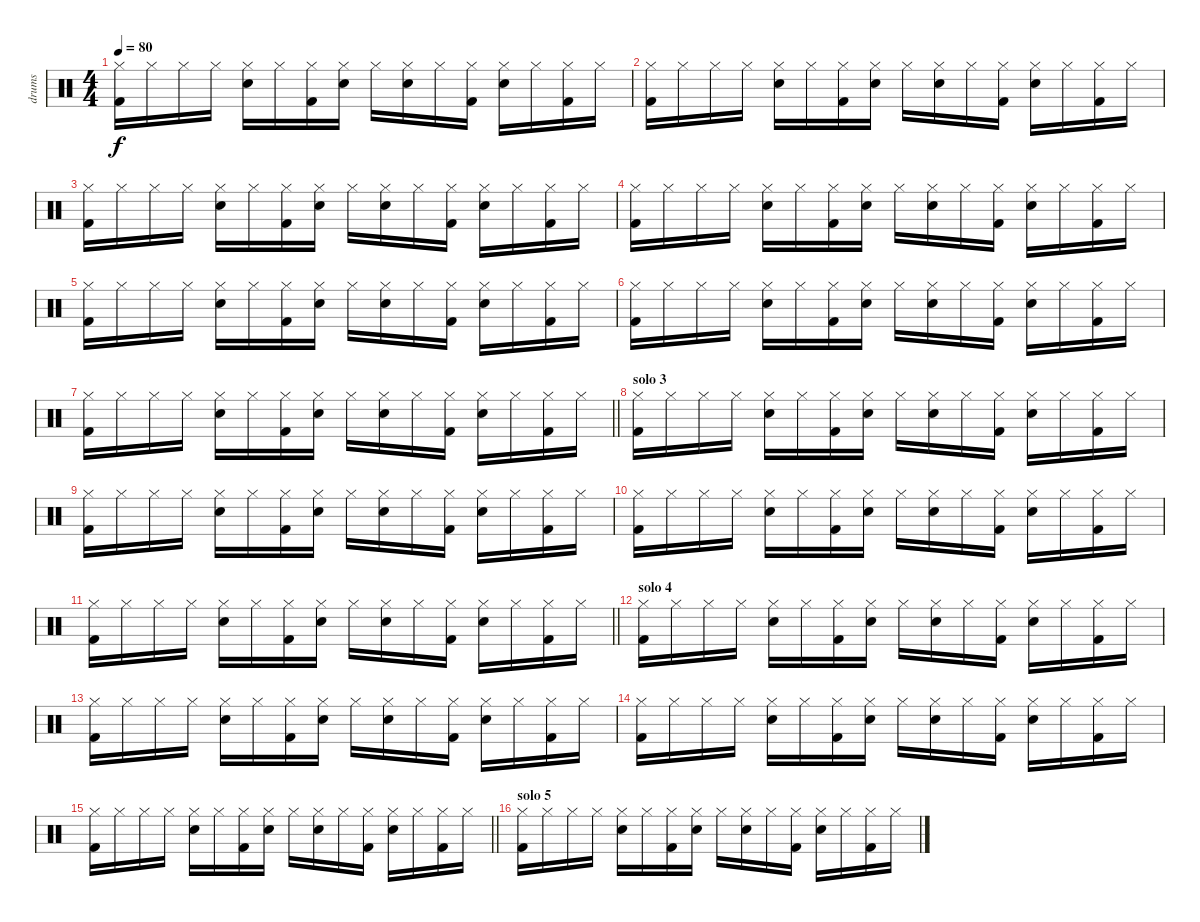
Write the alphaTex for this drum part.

\track ("drums" "drums") {instrument percussion}
\staff {score}
\articulation defaults
\ts (4 4)
\tempo 80
\clef neutral
\ks c
("Hi-Hat (closed)" "Kick (hit) 2").16{dy f} "Hi-Hat (closed)".16 "Hi-Hat (closed)".16 "Hi-Hat (closed)".16 ("Hi-Hat (closed)" "Snare (hit) 2").16 "Hi-Hat (closed)".16 ("Hi-Hat (closed)" "Kick (hit) 2").16 ("Hi-Hat (closed)" "Snare (hit) 2").16 "Hi-Hat (closed)".16 ("Hi-Hat (closed)" "Snare (hit) 2").16 "Hi-Hat (closed)".16 ("Hi-Hat (closed)" "Kick (hit) 2").16 ("Hi-Hat (closed)" "Snare (hit) 2").16 "Hi-Hat (closed)".16 ("Hi-Hat (closed)" "Kick (hit) 2").16 "Hi-Hat (closed)".16 |
("Hi-Hat (closed)" "Kick (hit) 2").16 "Hi-Hat (closed)".16 "Hi-Hat (closed)".16 "Hi-Hat (closed)".16 ("Hi-Hat (closed)" "Snare (hit) 2").16 "Hi-Hat (closed)".16 ("Hi-Hat (closed)" "Kick (hit) 2").16 ("Hi-Hat (closed)" "Snare (hit) 2").16 "Hi-Hat (closed)".16 ("Hi-Hat (closed)" "Snare (hit) 2").16 "Hi-Hat (closed)".16 ("Hi-Hat (closed)" "Kick (hit) 2").16 ("Hi-Hat (closed)" "Snare (hit) 2").16 "Hi-Hat (closed)".16 ("Hi-Hat (closed)" "Kick (hit) 2").16 "Hi-Hat (closed)".16 |
("Hi-Hat (closed)" "Kick (hit) 2").16 "Hi-Hat (closed)".16 "Hi-Hat (closed)".16 "Hi-Hat (closed)".16 ("Hi-Hat (closed)" "Snare (hit) 2").16 "Hi-Hat (closed)".16 ("Hi-Hat (closed)" "Kick (hit) 2").16 ("Hi-Hat (closed)" "Snare (hit) 2").16 "Hi-Hat (closed)".16 ("Hi-Hat (closed)" "Snare (hit) 2").16 "Hi-Hat (closed)".16 ("Hi-Hat (closed)" "Kick (hit) 2").16 ("Hi-Hat (closed)" "Snare (hit) 2").16 "Hi-Hat (closed)".16 ("Hi-Hat (closed)" "Kick (hit) 2").16 "Hi-Hat (closed)".16 |
("Hi-Hat (closed)" "Kick (hit) 2").16 "Hi-Hat (closed)".16 "Hi-Hat (closed)".16 "Hi-Hat (closed)".16 ("Hi-Hat (closed)" "Snare (hit) 2").16 "Hi-Hat (closed)".16 ("Hi-Hat (closed)" "Kick (hit) 2").16 ("Hi-Hat (closed)" "Snare (hit) 2").16 "Hi-Hat (closed)".16 ("Hi-Hat (closed)" "Snare (hit) 2").16 "Hi-Hat (closed)".16 ("Hi-Hat (closed)" "Kick (hit) 2").16 ("Hi-Hat (closed)" "Snare (hit) 2").16 "Hi-Hat (closed)".16 ("Hi-Hat (closed)" "Kick (hit) 2").16 "Hi-Hat (closed)".16 |
("Hi-Hat (closed)" "Kick (hit) 2").16 "Hi-Hat (closed)".16 "Hi-Hat (closed)".16 "Hi-Hat (closed)".16 ("Hi-Hat (closed)" "Snare (hit) 2").16 "Hi-Hat (closed)".16 ("Hi-Hat (closed)" "Kick (hit) 2").16 ("Hi-Hat (closed)" "Snare (hit) 2").16 "Hi-Hat (closed)".16 ("Hi-Hat (closed)" "Snare (hit) 2").16 "Hi-Hat (closed)".16 ("Hi-Hat (closed)" "Kick (hit) 2").16 ("Hi-Hat (closed)" "Snare (hit) 2").16 "Hi-Hat (closed)".16 ("Hi-Hat (closed)" "Kick (hit) 2").16 "Hi-Hat (closed)".16 |
("Hi-Hat (closed)" "Kick (hit) 2").16 "Hi-Hat (closed)".16 "Hi-Hat (closed)".16 "Hi-Hat (closed)".16 ("Hi-Hat (closed)" "Snare (hit) 2").16 "Hi-Hat (closed)".16 ("Hi-Hat (closed)" "Kick (hit) 2").16 ("Hi-Hat (closed)" "Snare (hit) 2").16 "Hi-Hat (closed)".16 ("Hi-Hat (closed)" "Snare (hit) 2").16 "Hi-Hat (closed)".16 ("Hi-Hat (closed)" "Kick (hit) 2").16 ("Hi-Hat (closed)" "Snare (hit) 2").16 "Hi-Hat (closed)".16 ("Hi-Hat (closed)" "Kick (hit) 2").16 "Hi-Hat (closed)".16 |
\barLineRight lightlight
("Hi-Hat (closed)" "Kick (hit) 2").16 "Hi-Hat (closed)".16 "Hi-Hat (closed)".16 "Hi-Hat (closed)".16 ("Hi-Hat (closed)" "Snare (hit) 2").16 "Hi-Hat (closed)".16 ("Hi-Hat (closed)" "Kick (hit) 2").16 ("Hi-Hat (closed)" "Snare (hit) 2").16 "Hi-Hat (closed)".16 ("Hi-Hat (closed)" "Snare (hit) 2").16 "Hi-Hat (closed)".16 ("Hi-Hat (closed)" "Kick (hit) 2").16 ("Hi-Hat (closed)" "Snare (hit) 2").16 "Hi-Hat (closed)".16 ("Hi-Hat (closed)" "Kick (hit) 2").16 "Hi-Hat (closed)".16 |
\section ("" "solo 3")
("Hi-Hat (closed)" "Kick (hit) 2").16 "Hi-Hat (closed)".16 "Hi-Hat (closed)".16 "Hi-Hat (closed)".16 ("Hi-Hat (closed)" "Snare (hit) 2").16 "Hi-Hat (closed)".16 ("Hi-Hat (closed)" "Kick (hit) 2").16 ("Hi-Hat (closed)" "Snare (hit) 2").16 "Hi-Hat (closed)".16 ("Hi-Hat (closed)" "Snare (hit) 2").16 "Hi-Hat (closed)".16 ("Hi-Hat (closed)" "Kick (hit) 2").16 ("Hi-Hat (closed)" "Snare (hit) 2").16 "Hi-Hat (closed)".16 ("Hi-Hat (closed)" "Kick (hit) 2").16 "Hi-Hat (closed)".16 |
("Hi-Hat (closed)" "Kick (hit) 2").16 "Hi-Hat (closed)".16 "Hi-Hat (closed)".16 "Hi-Hat (closed)".16 ("Hi-Hat (closed)" "Snare (hit) 2").16 "Hi-Hat (closed)".16 ("Hi-Hat (closed)" "Kick (hit) 2").16 ("Hi-Hat (closed)" "Snare (hit) 2").16 "Hi-Hat (closed)".16 ("Hi-Hat (closed)" "Snare (hit) 2").16 "Hi-Hat (closed)".16 ("Hi-Hat (closed)" "Kick (hit) 2").16 ("Hi-Hat (closed)" "Snare (hit) 2").16 "Hi-Hat (closed)".16 ("Hi-Hat (closed)" "Kick (hit) 2").16 "Hi-Hat (closed)".16 |
("Hi-Hat (closed)" "Kick (hit) 2").16 "Hi-Hat (closed)".16 "Hi-Hat (closed)".16 "Hi-Hat (closed)".16 ("Hi-Hat (closed)" "Snare (hit) 2").16 "Hi-Hat (closed)".16 ("Hi-Hat (closed)" "Kick (hit) 2").16 ("Hi-Hat (closed)" "Snare (hit) 2").16 "Hi-Hat (closed)".16 ("Hi-Hat (closed)" "Snare (hit) 2").16 "Hi-Hat (closed)".16 ("Hi-Hat (closed)" "Kick (hit) 2").16 ("Hi-Hat (closed)" "Snare (hit) 2").16 "Hi-Hat (closed)".16 ("Hi-Hat (closed)" "Kick (hit) 2").16 "Hi-Hat (closed)".16 |
\barLineRight lightlight
("Hi-Hat (closed)" "Kick (hit) 2").16 "Hi-Hat (closed)".16 "Hi-Hat (closed)".16 "Hi-Hat (closed)".16 ("Hi-Hat (closed)" "Snare (hit) 2").16 "Hi-Hat (closed)".16 ("Hi-Hat (closed)" "Kick (hit) 2").16 ("Hi-Hat (closed)" "Snare (hit) 2").16 "Hi-Hat (closed)".16 ("Hi-Hat (closed)" "Snare (hit) 2").16 "Hi-Hat (closed)".16 ("Hi-Hat (closed)" "Kick (hit) 2").16 ("Hi-Hat (closed)" "Snare (hit) 2").16 "Hi-Hat (closed)".16 ("Hi-Hat (closed)" "Kick (hit) 2").16 "Hi-Hat (closed)".16 |
\section ("" "solo 4")
("Hi-Hat (closed)" "Kick (hit) 2").16 "Hi-Hat (closed)".16 "Hi-Hat (closed)".16 "Hi-Hat (closed)".16 ("Hi-Hat (closed)" "Snare (hit) 2").16 "Hi-Hat (closed)".16 ("Hi-Hat (closed)" "Kick (hit) 2").16 ("Hi-Hat (closed)" "Snare (hit) 2").16 "Hi-Hat (closed)".16 ("Hi-Hat (closed)" "Snare (hit) 2").16 "Hi-Hat (closed)".16 ("Hi-Hat (closed)" "Kick (hit) 2").16 ("Hi-Hat (closed)" "Snare (hit) 2").16 "Hi-Hat (closed)".16 ("Hi-Hat (closed)" "Kick (hit) 2").16 "Hi-Hat (closed)".16 |
("Hi-Hat (closed)" "Kick (hit) 2").16 "Hi-Hat (closed)".16 "Hi-Hat (closed)".16 "Hi-Hat (closed)".16 ("Hi-Hat (closed)" "Snare (hit) 2").16 "Hi-Hat (closed)".16 ("Hi-Hat (closed)" "Kick (hit) 2").16 ("Hi-Hat (closed)" "Snare (hit) 2").16 "Hi-Hat (closed)".16 ("Hi-Hat (closed)" "Snare (hit) 2").16 "Hi-Hat (closed)".16 ("Hi-Hat (closed)" "Kick (hit) 2").16 ("Hi-Hat (closed)" "Snare (hit) 2").16 "Hi-Hat (closed)".16 ("Hi-Hat (closed)" "Kick (hit) 2").16 "Hi-Hat (closed)".16 |
("Hi-Hat (closed)" "Kick (hit) 2").16 "Hi-Hat (closed)".16 "Hi-Hat (closed)".16 "Hi-Hat (closed)".16 ("Hi-Hat (closed)" "Snare (hit) 2").16 "Hi-Hat (closed)".16 ("Hi-Hat (closed)" "Kick (hit) 2").16 ("Hi-Hat (closed)" "Snare (hit) 2").16 "Hi-Hat (closed)".16 ("Hi-Hat (closed)" "Snare (hit) 2").16 "Hi-Hat (closed)".16 ("Hi-Hat (closed)" "Kick (hit) 2").16 ("Hi-Hat (closed)" "Snare (hit) 2").16 "Hi-Hat (closed)".16 ("Hi-Hat (closed)" "Kick (hit) 2").16 "Hi-Hat (closed)".16 |
\barLineRight lightlight
("Hi-Hat (closed)" "Kick (hit) 2").16 "Hi-Hat (closed)".16 "Hi-Hat (closed)".16 "Hi-Hat (closed)".16 ("Hi-Hat (closed)" "Snare (hit) 2").16 "Hi-Hat (closed)".16 ("Hi-Hat (closed)" "Kick (hit) 2").16 ("Hi-Hat (closed)" "Snare (hit) 2").16 "Hi-Hat (closed)".16 ("Hi-Hat (closed)" "Snare (hit) 2").16 "Hi-Hat (closed)".16 ("Hi-Hat (closed)" "Kick (hit) 2").16 ("Hi-Hat (closed)" "Snare (hit) 2").16 "Hi-Hat (closed)".16 ("Hi-Hat (closed)" "Kick (hit) 2").16 "Hi-Hat (closed)".16 |
\section ("" "solo 5")
("Hi-Hat (closed)" "Kick (hit) 2").16 "Hi-Hat (closed)".16 "Hi-Hat (closed)".16 "Hi-Hat (closed)".16 ("Hi-Hat (closed)" "Snare (hit) 2").16 "Hi-Hat (closed)".16 ("Hi-Hat (closed)" "Kick (hit) 2").16 ("Hi-Hat (closed)" "Snare (hit) 2").16 "Hi-Hat (closed)".16 ("Hi-Hat (closed)" "Snare (hit) 2").16 "Hi-Hat (closed)".16 ("Hi-Hat (closed)" "Kick (hit) 2").16 ("Hi-Hat (closed)" "Snare (hit) 2").16 "Hi-Hat (closed)".16 ("Hi-Hat (closed)" "Kick (hit) 2").16 "Hi-Hat (closed)".16
